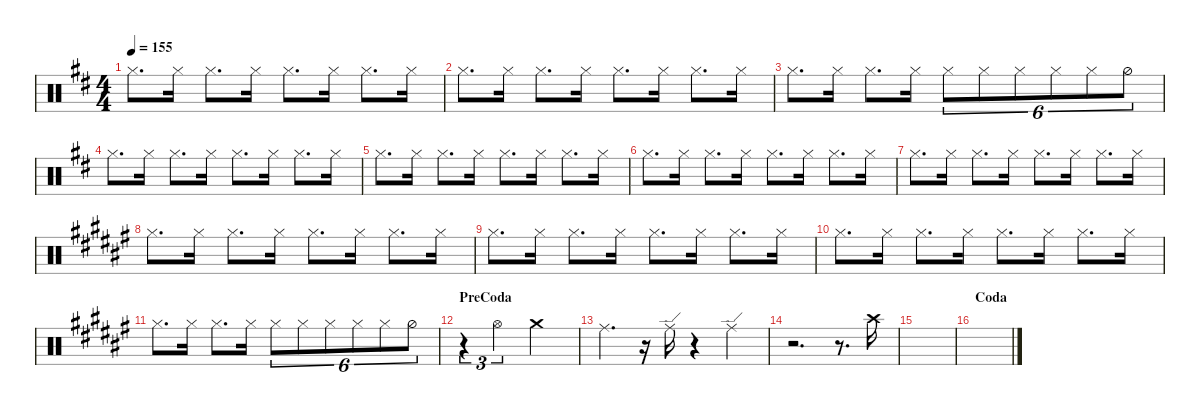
\hideDynamics
\bracketExtendMode nobrackets
\singleTrackTrackNamePolicy hidden
\multiTrackTrackNamePolicy hidden
\otherSystemsTrackNameOrientation horizontal
\track ("Perc" "Drums") {instrument percussion}
\staff {score}
\articulation defaults
\ts (4 4)
\tempo 155
\clef neutral
\ks d "Hi-Hat (closed)"{acc forcenatural}.8{d dy mp beam Down} "Hi-Hat (closed)"{acc forcenatural}.16{dy p beam Down} "Hi-Hat (closed)"{acc forcenatural}.8{d beam Down} "Hi-Hat (closed)"{acc forcenatural}.16{dy mf beam Down} "Hi-Hat (closed)"{acc forcenatural}.8{d dy p beam Down} "Hi-Hat (closed)"{acc forcenatural}.16{beam Down} "Hi-Hat (closed)"{acc forcenatural}.8{d beam Down} "Hi-Hat (closed)"{acc forcenatural}.16{beam Down}
|
"Hi-Hat (closed)"{acc forcenatural}.8{d beam Down} "Hi-Hat (closed)"{acc forcenatural}.16{beam Down} "Hi-Hat (closed)"{acc forcenatural}.8{d beam Down} "Hi-Hat (closed)"{acc forcenatural}.16{dy mp beam Down} "Hi-Hat (closed)"{acc forcenatural}.8{d dy p beam Down} "Hi-Hat (closed)"{acc forcenatural}.16{beam Down} "Hi-Hat (closed)"{acc forcenatural}.8{d beam Down} "Hi-Hat (closed)"{acc forcenatural}.16{beam Down} |
"Hi-Hat (closed)"{acc forcenatural}.8{d dy mp beam Down} "Hi-Hat (closed)"{acc forcenatural}.16{dy p beam Down} "Hi-Hat (closed)"{acc forcenatural}.8{d beam Down} "Hi-Hat (closed)"{acc forcenatural}.16{dy mf beam Down} "Hi-Hat (closed)"{acc forcenatural}.8{tu (6 4) dy mp beam Down} "Hi-Hat (closed)"{acc forcenatural}.8{tu (6 4) dy p beam Down} "Hi-Hat (closed)"{acc forcenatural}.8{tu (6 4) beam Down} "Hi-Hat (closed)"{acc forcenatural}.8{tu (6 4) beam Down} "Hi-Hat (closed)"{acc forcenatural}.8{tu (6 4) beam Down} "Hi-Hat (half)"{acc forcenatural}.8{tu (6 4) beam Down} |
"Hi-Hat (closed)"{acc forcenatural}.8{d dy mp beam Down} "Hi-Hat (closed)"{acc forcenatural}.16{beam Down} "Hi-Hat (closed)"{acc forcenatural}.8{d dy p beam Down} "Hi-Hat (closed)"{acc forcenatural}.16{dy mp beam Down} "Hi-Hat (closed)"{acc forcenatural}.8{d dy p beam Down} "Hi-Hat (closed)"{acc forcenatural}.16{beam Down} "Hi-Hat (closed)"{acc forcenatural}.8{d beam Down} "Hi-Hat (closed)"{acc forcenatural}.16{beam Down} |
"Hi-Hat (closed)"{acc forcenatural}.8{d dy mp beam Down} "Hi-Hat (closed)"{acc forcenatural}.16{dy p beam Down} "Hi-Hat (closed)"{acc forcenatural}.8{d beam Down} "Hi-Hat (closed)"{acc forcenatural}.16{dy mf beam Down} "Hi-Hat (closed)"{acc forcenatural}.8{d dy p beam Down} "Hi-Hat (closed)"{acc forcenatural}.16{beam Down} "Hi-Hat (closed)"{acc forcenatural}.8{d beam Down} "Hi-Hat (closed)"{acc forcenatural}.16{beam Down} |
"Hi-Hat (closed)"{acc forcenatural}.8{d beam Down} "Hi-Hat (closed)"{acc forcenatural}.16{beam Down} "Hi-Hat (closed)"{acc forcenatural}.8{d beam Down} "Hi-Hat (closed)"{acc forcenatural}.16{dy mp beam Down} "Hi-Hat (closed)"{acc forcenatural}.8{d dy p beam Down} "Hi-Hat (closed)"{acc forcenatural}.16{beam Down} "Hi-Hat (closed)"{acc forcenatural}.8{d beam Down} "Hi-Hat (closed)"{acc forcenatural}.16{beam Down} |
"Hi-Hat (closed)"{acc forcenatural}.8{d beam Down} "Hi-Hat (closed)"{acc forcenatural}.16{beam Down} "Hi-Hat (closed)"{acc forcenatural}.8{d beam Down} "Hi-Hat (closed)"{acc forcenatural}.16{dy mp beam Down} "Hi-Hat (closed)"{acc forcenatural}.8{d dy p beam Down} "Hi-Hat (closed)"{acc forcenatural}.16{beam Down} "Hi-Hat (closed)"{acc forcenatural}.8{d beam Down} "Hi-Hat (closed)"{acc forcenatural}.16{beam Down} |
\ks f# "Hi-Hat (closed)"{acc forcenatural}.8{d dy mp beam Down} "Hi-Hat (closed)"{acc forcenatural}.16{dy p beam Down} "Hi-Hat (closed)"{acc forcenatural}.8{d beam Down} "Hi-Hat (closed)"{acc forcenatural}.16{dy mf beam Down} "Hi-Hat (closed)"{acc forcenatural}.8{d dy p beam Down} "Hi-Hat (closed)"{acc forcenatural}.16{beam Down} "Hi-Hat (closed)"{acc forcenatural}.8{d beam Down} "Hi-Hat (closed)"{acc forcenatural}.16{beam Down}
|
"Hi-Hat (closed)"{acc forcenatural}.8{d dy mp beam Down} "Hi-Hat (closed)"{acc forcenatural}.16{dy p beam Down} "Hi-Hat (closed)"{acc forcenatural}.8{d beam Down} "Hi-Hat (closed)"{acc forcenatural}.16{dy mf beam Down} "Hi-Hat (closed)"{acc forcenatural}.8{d dy p beam Down} "Hi-Hat (closed)"{acc forcenatural}.16{beam Down} "Hi-Hat (closed)"{acc forcenatural}.8{d beam Down} "Hi-Hat (closed)"{acc forcenatural}.16{beam Down} |
"Hi-Hat (closed)"{acc forcenatural}.8{d dy mp beam Down} "Hi-Hat (closed)"{acc forcenatural}.16{dy p beam Down} "Hi-Hat (closed)"{acc forcenatural}.8{d beam Down} "Hi-Hat (closed)"{acc forcenatural}.16{dy mf beam Down} "Hi-Hat (closed)"{acc forcenatural}.8{d dy p beam Down} "Hi-Hat (closed)"{acc forcenatural}.16{beam Down} "Hi-Hat (closed)"{acc forcenatural}.8{d beam Down} "Hi-Hat (closed)"{acc forcenatural}.16{beam Down} |
"Hi-Hat (closed)"{acc forcenatural}.8{d dy mp beam Down} "Hi-Hat (closed)"{acc forcenatural}.16{dy p beam Down} "Hi-Hat (closed)"{acc forcenatural}.8{d beam Down} "Hi-Hat (closed)"{acc forcenatural}.16{dy mf beam Down} "Hi-Hat (closed)"{acc forcenatural}.8{tu (6 4) dy mp beam Down} "Hi-Hat (closed)"{acc forcenatural}.8{tu (6 4) dy p beam Down} "Hi-Hat (closed)"{acc forcenatural}.8{tu (6 4) beam Down} "Hi-Hat (closed)"{acc forcenatural}.8{tu (6 4) beam Down} "Hi-Hat (closed)"{acc forcenatural}.8{tu (6 4) beam Down} "Hi-Hat (half)"{acc forcenatural}.8{tu (6 4) beam Down} |
\section ("" "PreCoda")
r.4{tu (3 2) beam Down} "Hi-Hat (open)"{acc forcenatural}.2{tu (3 2) dy mf beam Down} "Crash medium (hit)"{acc forcenatural}.2{beam Down} |
"Ride (middle)"{acc forcenatural}.4{d beam Down} r.16{beam Down} "Ride (edge)"{acc forcenatural}.16{dy p beam Down} r.4{beam Down} "Ride (edge)"{acc forcenatural}.4{beam Down} |
r.2{d beam Down} r.8{d beam Down} "Crash high (hit)"{acc forcenatural}.16{dy mp beam Down} |
|
\section ("" "Coda")
